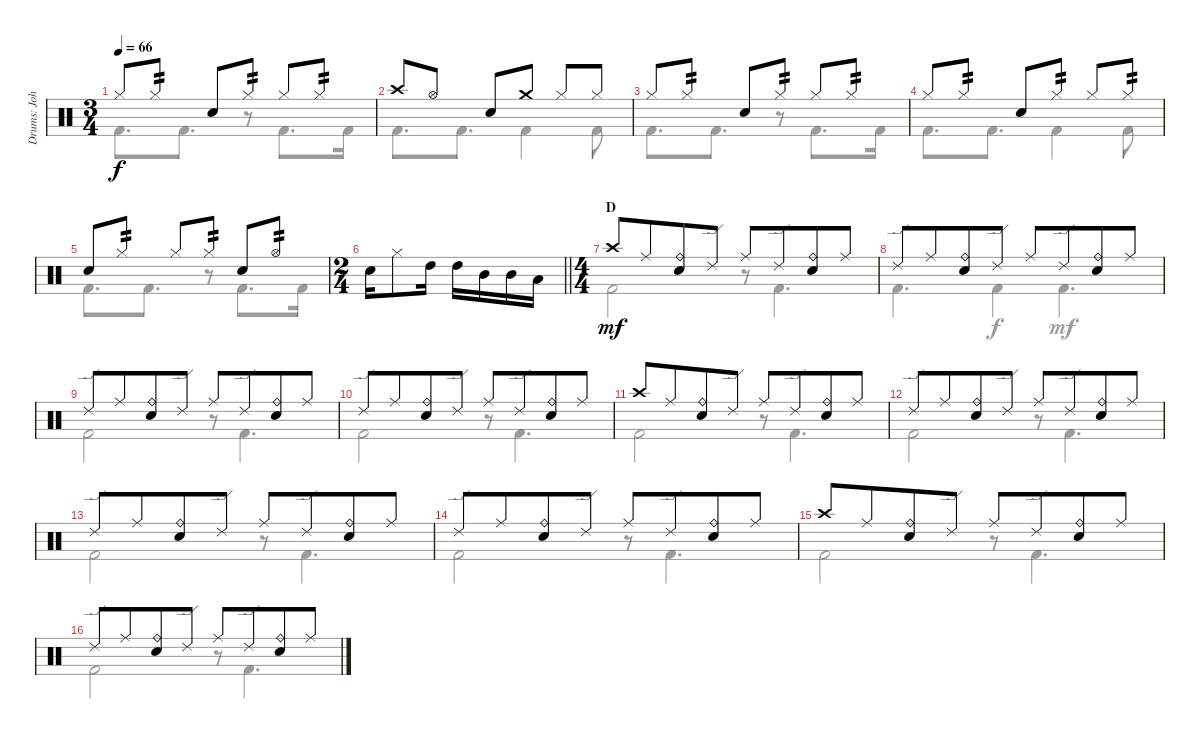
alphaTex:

\track ("Drums: John" "Drums: Joh") {instrument percussion}
\staff {score}
\articulation defaults
\voice
\ts (3 4)
\tempo 66
\clef neutral
\ks c "Hi-Hat (closed)".8{dy f} "Hi-Hat (closed)".8{tp 2} "Snare (hit) 2".8 "Hi-Hat (closed)".8{tp 2} "Hi-Hat (closed)".8 "Hi-Hat (closed)".8{tp 2}
|
"Crash high (hit)".8 "Hi-Hat (open)".8 "Snare (hit) 2".8 "Crash medium (hit)".8 "Hi-Hat (closed)".8 "Hi-Hat (closed)".8 |
"Hi-Hat (closed)".8 "Hi-Hat (closed)".8{tp 2} "Snare (hit) 2".8 "Hi-Hat (closed)".8{tp 2} "Hi-Hat (closed)".8 "Hi-Hat (closed)".8{tp 2} |
"Hi-Hat (closed)".8 "Hi-Hat (closed)".8{tp 2} "Snare (hit) 2".8 "Hi-Hat (closed)".8{tp 2} "Hi-Hat (closed)".8 "Hi-Hat (closed)".8{tp 2} |
"Snare (hit) 2".8 "Hi-Hat (closed)".8{tp 2} "Hi-Hat (closed)".8 "Hi-Hat (closed)".8{tp 2} "Snare (hit) 2".8 "Hi-Hat (open)".8{tp 2} |
\ts (2 4)
\barLineRight lightlight "Electric Snare (hit)".16 "Hi-Hat (closed)".8 "High Tom (hit)".16 "High Tom (hit)".16 "Mid Tom (hit)".16 "Mid Tom (hit)".16 "Low Tom (hit)".16
|
\ts (4 4)
\section ("" "D")
"Crash high (hit)".8{dy mf} "Ride (middle)".8{beam merge} ("Ride (bell)" "Electric Snare (hit)").8 "Ride (edge) 2".8 "Ride (middle)".8 "Ride (edge) 2".8{beam merge} ("Ride (bell)" "Electric Snare (hit)").8 "Ride (middle)".8 |
"Ride (edge) 2".8 "Ride (middle)".8{beam merge} ("Ride (bell)" "Electric Snare (hit)").8 "Ride (edge) 2".8 "Ride (middle)".8 "Ride (edge) 2".8{beam merge} ("Ride (bell)" "Electric Snare (hit)").8 "Ride (middle)".8 |
"Ride (edge) 2".8 "Ride (middle)".8{beam merge} ("Ride (bell)" "Electric Snare (hit)").8 "Ride (edge) 2".8 "Ride (middle)".8 "Ride (edge) 2".8{beam merge} ("Ride (bell)" "Electric Snare (hit)").8 "Ride (middle)".8 |
"Ride (edge) 2".8 "Ride (middle)".8{beam merge} ("Ride (bell)" "Electric Snare (hit)").8 "Ride (edge) 2".8 "Ride (middle)".8 "Ride (edge) 2".8{beam merge} ("Ride (bell)" "Electric Snare (hit)").8 "Ride (middle)".8 |
"Crash high (hit)".8 "Ride (middle)".8{beam merge} ("Ride (bell)" "Electric Snare (hit)").8 "Ride (edge) 2".8 "Ride (middle)".8 "Ride (edge) 2".8{beam merge} ("Ride (bell)" "Electric Snare (hit)").8 "Ride (middle)".8 |
"Ride (edge) 2".8 "Ride (middle)".8{beam merge} ("Ride (bell)" "Electric Snare (hit)").8 "Ride (edge) 2".8 "Ride (middle)".8 "Ride (edge) 2".8{beam merge} ("Ride (bell)" "Electric Snare (hit)").8 "Ride (middle)".8 |
"Ride (edge) 2".8 "Ride (middle)".8{beam merge} ("Ride (bell)" "Electric Snare (hit)").8 "Ride (edge) 2".8 "Ride (middle)".8 "Ride (edge) 2".8{beam merge} ("Ride (bell)" "Electric Snare (hit)").8 "Ride (middle)".8 |
"Ride (edge) 2".8 "Ride (middle)".8{beam merge} ("Ride (bell)" "Electric Snare (hit)").8 "Ride (edge) 2".8 "Ride (middle)".8 "Ride (edge) 2".8{beam merge} ("Ride (bell)" "Electric Snare (hit)").8 "Ride (middle)".8 |
"Crash high (hit)".8 "Ride (middle)".8{beam merge} ("Ride (bell)" "Electric Snare (hit)").8 "Ride (edge) 2".8 "Ride (middle)".8 "Ride (edge) 2".8{beam merge} ("Ride (bell)" "Electric Snare (hit)").8 "Ride (middle)".8 |
"Ride (edge) 2".8 "Ride (middle)".8{beam merge} ("Ride (bell)" "Electric Snare (hit)").8 "Ride (edge) 2".8 "Ride (middle)".8 "Ride (edge) 2".8{beam merge} ("Ride (bell)" "Electric Snare (hit)").8 "Ride (middle)".8
\voice
\clef neutral
\ottava regular
\simile none
\ks c "Kick (hit) 2".8{d dy f} "Kick (hit) 2".8{d}
r.8 "Kick (hit) 2".8{d} "Kick (hit) 2".16 |
"Kick (hit) 2".8{d} "Kick (hit) 2".8{d} "Kick (hit) 2".4 "Kick (hit) 2".8 |
"Kick (hit) 2".8{d} "Kick (hit) 2".8{d} r.8 "Kick (hit) 2".8{d} "Kick (hit) 2".16 |
"Kick (hit) 2".8{d} "Kick (hit) 2".8{d} "Kick (hit) 2".4 "Kick (hit) 2".8 |
"Kick (hit) 2".8{d} "Kick (hit) 2".8{d} r.8 "Kick (hit) 2".8{d} "Kick (hit) 2".16 |
\barLineRight lightlight
|
"Kick (hit) 2".2{dy mf} r.8 "Kick (hit) 2".4{d} |
"Kick (hit) 2".4{d} "Kick (hit) 2".4{dy f} "Kick (hit) 2".4{d dy mf} |
"Kick (hit) 2".2 r.8 "Kick (hit) 2".4{d} |
"Kick (hit) 2".2 r.8 "Kick (hit) 2".4{d} |
"Kick (hit) 2".2 r.8 "Kick (hit) 2".4{d} |
"Kick (hit) 2".2 r.8 "Kick (hit) 2".4{d} |
"Kick (hit) 2".2 r.8 "Kick (hit) 2".4{d} |
"Kick (hit) 2".2 r.8 "Kick (hit) 2".4{d} |
"Kick (hit) 2".2 r.8 "Kick (hit) 2".4{d} |
"Kick (hit) 2".2 r.8 "Kick (hit) 2".4{d}
